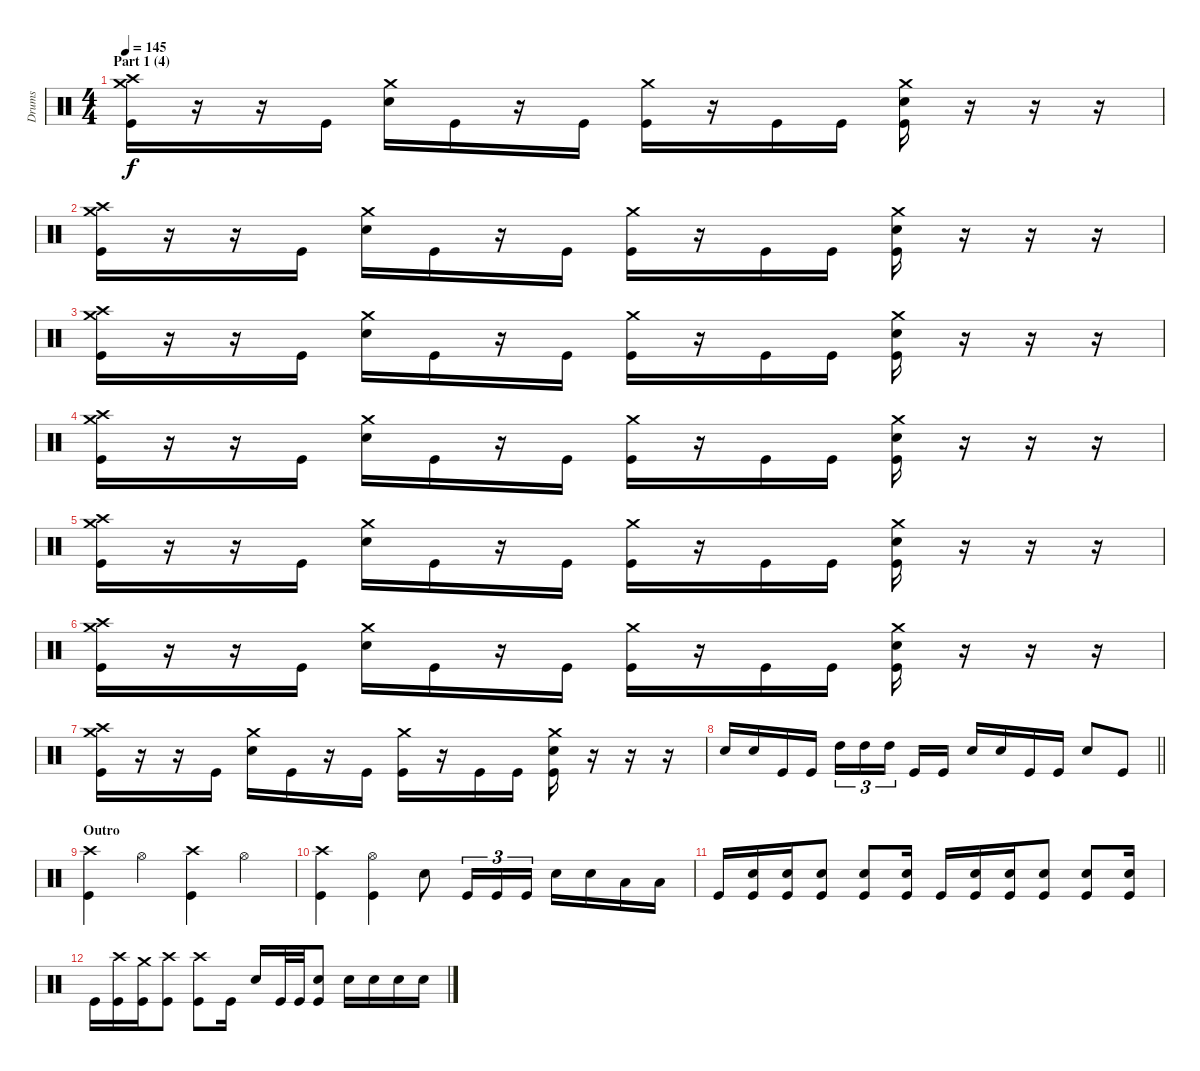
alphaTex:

\track ("Drums" "Drums") {instrument percussion}
\staff {score}
\articulation defaults
\ts (4 4)
\section ("" "Part 1 (4)")
\tempo 145
\clef neutral
\ks c
("Crash high (hit)" "Crash medium (hit)" "Kick (hit)").16{dy f} r.16 r.16 "Kick (hit)".16 ("Crash medium (hit)" "Snare (hit) 2").16 "Kick (hit)".16 r.16 "Kick (hit)".16 ("Crash medium (hit)" "Kick (hit)").16 r.16 "Kick (hit)".16 "Kick (hit)".16 ("Crash medium (hit)" "Snare (hit) 2" "Kick (hit)").16 r.16 r.16 r.16 |
("Crash high (hit)" "Crash medium (hit)" "Kick (hit)").16 r.16 r.16 "Kick (hit)".16 ("Crash medium (hit)" "Snare (hit) 2").16 "Kick (hit)".16 r.16 "Kick (hit)".16 ("Crash medium (hit)" "Kick (hit)").16 r.16 "Kick (hit)".16 "Kick (hit)".16 ("Crash medium (hit)" "Snare (hit) 2" "Kick (hit)").16 r.16 r.16 r.16 |
("Crash high (hit)" "Crash medium (hit)" "Kick (hit)").16 r.16 r.16 "Kick (hit)".16 ("Crash medium (hit)" "Snare (hit) 2").16 "Kick (hit)".16 r.16 "Kick (hit)".16 ("Crash medium (hit)" "Kick (hit)").16 r.16 "Kick (hit)".16 "Kick (hit)".16 ("Crash medium (hit)" "Snare (hit) 2" "Kick (hit)").16 r.16 r.16 r.16 |
("Crash high (hit)" "Crash medium (hit)" "Kick (hit)").16 r.16 r.16 "Kick (hit)".16 ("Crash medium (hit)" "Snare (hit) 2").16 "Kick (hit)".16 r.16 "Kick (hit)".16 ("Crash medium (hit)" "Kick (hit)").16 r.16 "Kick (hit)".16 "Kick (hit)".16 ("Crash medium (hit)" "Snare (hit) 2" "Kick (hit)").16 r.16 r.16 r.16 |
("Crash high (hit)" "Crash medium (hit)" "Kick (hit)").16 r.16 r.16 "Kick (hit)".16 ("Crash medium (hit)" "Snare (hit) 2").16 "Kick (hit)".16 r.16 "Kick (hit)".16 ("Crash medium (hit)" "Kick (hit)").16 r.16 "Kick (hit)".16 "Kick (hit)".16 ("Crash medium (hit)" "Snare (hit) 2" "Kick (hit)").16 r.16 r.16 r.16 |
("Crash high (hit)" "Crash medium (hit)" "Kick (hit)").16 r.16 r.16 "Kick (hit)".16 ("Crash medium (hit)" "Snare (hit) 2").16 "Kick (hit)".16 r.16 "Kick (hit)".16 ("Crash medium (hit)" "Kick (hit)").16 r.16 "Kick (hit)".16 "Kick (hit)".16 ("Crash medium (hit)" "Snare (hit) 2" "Kick (hit)").16 r.16 r.16 r.16 |
("Crash high (hit)" "Crash medium (hit)" "Kick (hit)").16 r.16 r.16 "Kick (hit)".16 ("Crash medium (hit)" "Snare (hit) 2").16 "Kick (hit)".16 r.16 "Kick (hit)".16 ("Crash medium (hit)" "Kick (hit)").16 r.16 "Kick (hit)".16 "Kick (hit)".16 ("Crash medium (hit)" "Snare (hit) 2" "Kick (hit)").16 r.16 r.16 r.16 |
\barLineRight lightlight "Snare (hit) 2".16 "Snare (hit) 2".16 "Kick (hit)".16 "Kick (hit)".16 "High Tom (hit)".16{tu (3 2)} "High Tom (hit)".16{tu (3 2)} "High Tom (hit)".16{tu (3 2) beam splitsecondary} "Kick (hit)".16 "Kick (hit)".16 "Snare (hit) 2".16 "Snare (hit) 2".16 "Kick (hit)".16 "Kick (hit)".16 "Snare (hit) 2".8 "Kick (hit)".8
|
\section ("" "Outro")
("Crash high (hit)" "Kick (hit)").4 "Hi-Hat (open)".4 ("Crash high (hit)" "Kick (hit)").4 "Hi-Hat (open)".4 |
("Crash high (hit)" "Kick (hit)").4 ("Hi-Hat (open)" "Kick (hit)").4 "Snare (hit) 2".8 "Kick (hit)".16{tu (3 2)} "Kick (hit)".16{tu (3 2)} "Kick (hit)".16{tu (3 2)} "Snare (hit) 2".16 "Snare (hit) 2".16 "Low Tom (hit)".16 "Low Tom (hit)".16 |
"Kick (hit)".16 ("Snare (hit) 2" "Kick (hit)").16 ("Snare (hit) 2" "Kick (hit)").16 ("Snare (hit) 2" "Kick (hit)").8 ("Snare (hit) 2" "Kick (hit)").8 ("Snare (hit) 2" "Kick (hit)").16 "Kick (hit)".16 ("Snare (hit) 2" "Kick (hit)").16 ("Snare (hit) 2" "Kick (hit)").16 ("Snare (hit) 2" "Kick (hit)").8 ("Snare (hit) 2" "Kick (hit)").8 ("Snare (hit) 2" "Kick (hit)").16 |
"Kick (hit)".16 ("Crash high (hit)" "Kick (hit)").16 ("Crash medium (hit)" "Kick (hit)").16 ("Crash high (hit)" "Kick (hit)").8 ("Crash high (hit)" "Kick (hit)").8 "Kick (hit)".16 "Snare (hit) 2".16 "Kick (hit)".32 "Kick (hit)".32 ("Snare (hit) 2" "Kick (hit)").8 "Snare (hit) 2".16 "Snare (hit) 2".16 "Snare (hit) 2".16 "Snare (hit) 2".16
